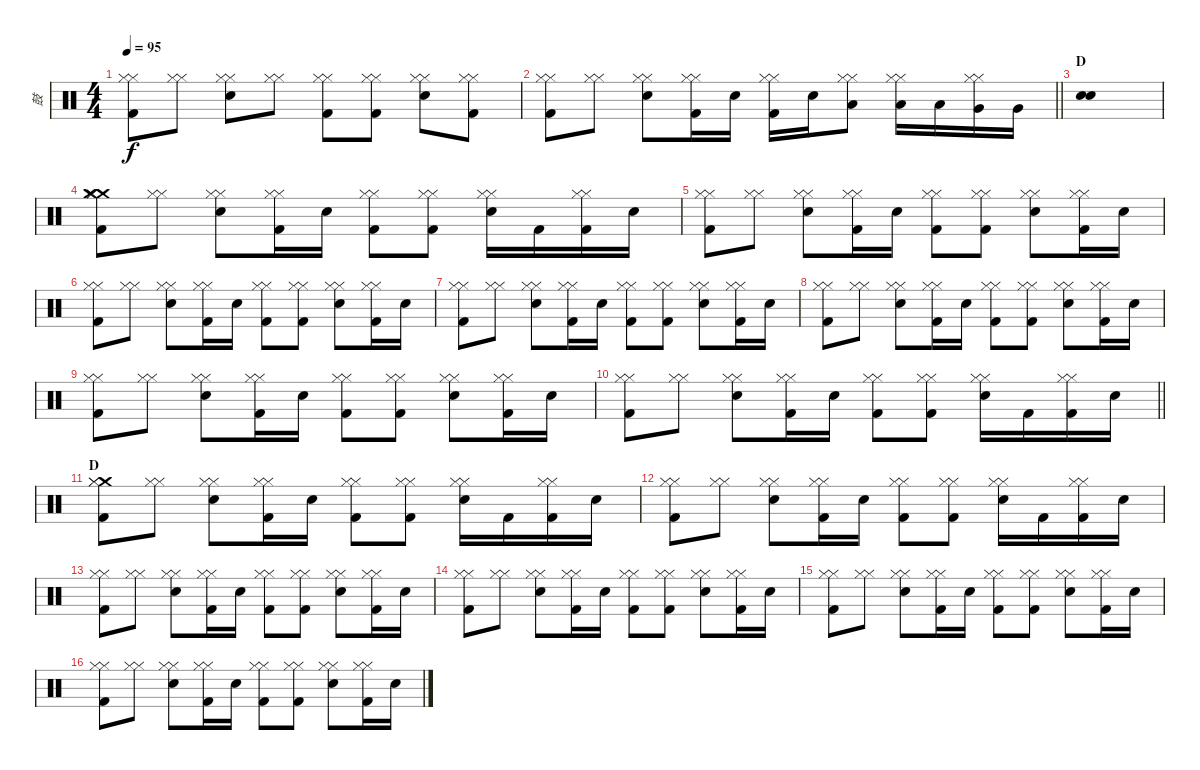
\track ("鼓" "鼓") {instrument percussion}
\staff {score}
\articulation defaults
\ts (4 4)
\tempo 95
\clef neutral
\ks c
("Hi-Hat (closed)" "Hi-Hat (closed)" "Kick (hit) 2").8{dy f} ("Hi-Hat (closed)" "Hi-Hat (closed)").8 ("Hi-Hat (closed)" "Hi-Hat (closed)" "Metronome (bell)").8 ("Hi-Hat (closed)" "Hi-Hat (closed)").8 ("Hi-Hat (closed)" "Hi-Hat (closed)" "Kick (hit) 2").8 ("Hi-Hat (closed)" "Hi-Hat (closed)" "Kick (hit) 2").8 ("Hi-Hat (closed)" "Hi-Hat (closed)" "Metronome (bell)").8 ("Hi-Hat (closed)" "Hi-Hat (closed)" "Kick (hit) 2").8 |
\barLineRight lightlight
("Hi-Hat (closed)" "Hi-Hat (closed)" "Kick (hit) 2").8 ("Hi-Hat (closed)" "Hi-Hat (closed)").8 ("Hi-Hat (closed)" "Hi-Hat (closed)" "Metronome (bell)").8 ("Hi-Hat (closed)" "Hi-Hat (closed)" "Kick (hit) 2").16 "Metronome (bell)".16 ("Hi-Hat (closed)" "Hi-Hat (closed)" "Kick (hit) 2").16 "Metronome (bell)".16 ("Hi-Hat (closed)" "Hi-Hat (closed)" "Low Tom (hit)").8 ("Hi-Hat (closed)" "Hi-Hat (closed)" "Low Floor Tom (hit)").16{volume 11} "Low Tom (hit)".16{volume 12} ("Hi-Hat (closed)" "Hi-Hat (closed)" "Very Low Tom (hit)").16{volume 13} "Very Low Tom (hit)".16{volume 14} |
\section ("" "D")
("Metronome (bell)" "Metronome (bell)").1{volume 14} |
("Crash medium (hit)" "Hi-Hat (closed)" "Hi-Hat (closed)" "Crash medium (hit)" "Kick (hit) 2").8{volume 13} ("Hi-Hat (closed)" "Hi-Hat (closed)").8 ("Hi-Hat (closed)" "Hi-Hat (closed)" "Metronome (bell)").8 ("Hi-Hat (closed)" "Hi-Hat (closed)" "Kick (hit) 2").16 "Metronome (bell)".16 ("Hi-Hat (closed)" "Hi-Hat (closed)" "Kick (hit) 2").8 ("Hi-Hat (closed)" "Hi-Hat (closed)" "Kick (hit) 2").8 ("Hi-Hat (closed)" "Hi-Hat (closed)" "Metronome (bell)").16 "Kick (hit) 2".16 ("Hi-Hat (closed)" "Hi-Hat (closed)" "Kick (hit) 2").16 "Metronome (bell)".16 |
("Hi-Hat (closed)" "Hi-Hat (closed)" "Kick (hit) 2").8 ("Hi-Hat (closed)" "Hi-Hat (closed)").8 ("Hi-Hat (closed)" "Hi-Hat (closed)" "Metronome (bell)").8 ("Hi-Hat (closed)" "Hi-Hat (closed)" "Kick (hit) 2").16 "Metronome (bell)".16 ("Hi-Hat (closed)" "Hi-Hat (closed)" "Kick (hit) 2").8 ("Hi-Hat (closed)" "Hi-Hat (closed)" "Kick (hit) 2").8 ("Hi-Hat (closed)" "Hi-Hat (closed)" "Metronome (bell)").8 ("Hi-Hat (closed)" "Hi-Hat (closed)" "Kick (hit) 2").16 "Metronome (bell)".16 |
("Hi-Hat (closed)" "Hi-Hat (closed)" "Kick (hit) 2").8 ("Hi-Hat (closed)" "Hi-Hat (closed)").8 ("Hi-Hat (closed)" "Hi-Hat (closed)" "Metronome (bell)").8 ("Hi-Hat (closed)" "Hi-Hat (closed)" "Kick (hit) 2").16 "Metronome (bell)".16 ("Hi-Hat (closed)" "Hi-Hat (closed)" "Kick (hit) 2").8 ("Hi-Hat (closed)" "Hi-Hat (closed)" "Kick (hit) 2").8 ("Hi-Hat (closed)" "Hi-Hat (closed)" "Metronome (bell)").8 ("Hi-Hat (closed)" "Hi-Hat (closed)" "Kick (hit) 2").16 "Metronome (bell)".16 |
("Hi-Hat (closed)" "Hi-Hat (closed)" "Kick (hit) 2").8 ("Hi-Hat (closed)" "Hi-Hat (closed)").8 ("Hi-Hat (closed)" "Hi-Hat (closed)" "Metronome (bell)").8 ("Hi-Hat (closed)" "Hi-Hat (closed)" "Kick (hit) 2").16 "Metronome (bell)".16 ("Hi-Hat (closed)" "Hi-Hat (closed)" "Kick (hit) 2").8 ("Hi-Hat (closed)" "Hi-Hat (closed)" "Kick (hit) 2").8 ("Hi-Hat (closed)" "Hi-Hat (closed)" "Metronome (bell)").8 ("Hi-Hat (closed)" "Hi-Hat (closed)" "Kick (hit) 2").16 "Metronome (bell)".16 |
("Hi-Hat (closed)" "Hi-Hat (closed)" "Kick (hit) 2").8 ("Hi-Hat (closed)" "Hi-Hat (closed)").8 ("Hi-Hat (closed)" "Hi-Hat (closed)" "Metronome (bell)").8 ("Hi-Hat (closed)" "Hi-Hat (closed)" "Kick (hit) 2").16 "Metronome (bell)".16 ("Hi-Hat (closed)" "Hi-Hat (closed)" "Kick (hit) 2").8 ("Hi-Hat (closed)" "Hi-Hat (closed)" "Kick (hit) 2").8 ("Hi-Hat (closed)" "Hi-Hat (closed)" "Metronome (bell)").8 ("Hi-Hat (closed)" "Hi-Hat (closed)" "Kick (hit) 2").16 "Metronome (bell)".16 |
("Hi-Hat (closed)" "Hi-Hat (closed)" "Kick (hit) 2").8 ("Hi-Hat (closed)" "Hi-Hat (closed)").8 ("Hi-Hat (closed)" "Hi-Hat (closed)" "Metronome (bell)").8 ("Hi-Hat (closed)" "Hi-Hat (closed)" "Kick (hit) 2").16 "Metronome (bell)".16 ("Hi-Hat (closed)" "Hi-Hat (closed)" "Kick (hit) 2").8 ("Hi-Hat (closed)" "Hi-Hat (closed)" "Kick (hit) 2").8 ("Hi-Hat (closed)" "Hi-Hat (closed)" "Metronome (bell)").8 ("Hi-Hat (closed)" "Hi-Hat (closed)" "Kick (hit) 2").16 "Metronome (bell)".16 |
\barLineRight lightlight
("Hi-Hat (closed)" "Hi-Hat (closed)" "Kick (hit) 2").8 ("Hi-Hat (closed)" "Hi-Hat (closed)").8 ("Hi-Hat (closed)" "Hi-Hat (closed)" "Metronome (bell)").8 ("Hi-Hat (closed)" "Hi-Hat (closed)" "Kick (hit) 2").16 "Metronome (bell)".16 ("Hi-Hat (closed)" "Hi-Hat (closed)" "Kick (hit) 2").8 ("Hi-Hat (closed)" "Hi-Hat (closed)" "Kick (hit) 2").8 ("Hi-Hat (closed)" "Hi-Hat (closed)" "Metronome (bell)").16 "Kick (hit) 2".16 ("Hi-Hat (closed)" "Hi-Hat (closed)" "Kick (hit) 2").16 "Metronome (bell)".16 |
\section ("" "D")
("Crash medium (hit)" "Hi-Hat (closed)" "Hi-Hat (closed)" "Kick (hit) 2").8 ("Hi-Hat (closed)" "Hi-Hat (closed)").8 ("Hi-Hat (closed)" "Hi-Hat (closed)" "Metronome (bell)").8 ("Hi-Hat (closed)" "Hi-Hat (closed)" "Kick (hit) 2").16 "Metronome (bell)".16 ("Hi-Hat (closed)" "Hi-Hat (closed)" "Kick (hit) 2").8 ("Hi-Hat (closed)" "Hi-Hat (closed)" "Kick (hit) 2").8 ("Hi-Hat (closed)" "Hi-Hat (closed)" "Metronome (bell)").16 "Kick (hit) 2".16 ("Hi-Hat (closed)" "Hi-Hat (closed)" "Kick (hit) 2").16 "Metronome (bell)".16 |
("Hi-Hat (closed)" "Hi-Hat (closed)" "Kick (hit) 2").8 ("Hi-Hat (closed)" "Hi-Hat (closed)").8 ("Hi-Hat (closed)" "Hi-Hat (closed)" "Metronome (bell)").8 ("Hi-Hat (closed)" "Hi-Hat (closed)" "Kick (hit) 2").16 "Metronome (bell)".16 ("Hi-Hat (closed)" "Hi-Hat (closed)" "Kick (hit) 2").8 ("Hi-Hat (closed)" "Hi-Hat (closed)" "Kick (hit) 2").8 ("Hi-Hat (closed)" "Hi-Hat (closed)" "Metronome (bell)").16 "Kick (hit) 2".16 ("Hi-Hat (closed)" "Hi-Hat (closed)" "Kick (hit) 2").16 "Metronome (bell)".16 |
("Hi-Hat (closed)" "Hi-Hat (closed)" "Kick (hit) 2").8 ("Hi-Hat (closed)" "Hi-Hat (closed)").8 ("Hi-Hat (closed)" "Hi-Hat (closed)" "Metronome (bell)").8 ("Hi-Hat (closed)" "Hi-Hat (closed)" "Kick (hit) 2").16 "Metronome (bell)".16 ("Hi-Hat (closed)" "Hi-Hat (closed)" "Kick (hit) 2").8 ("Hi-Hat (closed)" "Hi-Hat (closed)" "Kick (hit) 2").8 ("Hi-Hat (closed)" "Hi-Hat (closed)" "Metronome (bell)").8 ("Hi-Hat (closed)" "Hi-Hat (closed)" "Kick (hit) 2").16 "Metronome (bell)".16 |
("Hi-Hat (closed)" "Hi-Hat (closed)" "Kick (hit) 2").8 ("Hi-Hat (closed)" "Hi-Hat (closed)").8 ("Hi-Hat (closed)" "Hi-Hat (closed)" "Metronome (bell)").8 ("Hi-Hat (closed)" "Hi-Hat (closed)" "Kick (hit) 2").16 "Metronome (bell)".16 ("Hi-Hat (closed)" "Hi-Hat (closed)" "Kick (hit) 2").8 ("Hi-Hat (closed)" "Hi-Hat (closed)" "Kick (hit) 2").8 ("Hi-Hat (closed)" "Hi-Hat (closed)" "Metronome (bell)").8 ("Hi-Hat (closed)" "Hi-Hat (closed)" "Kick (hit) 2").16 "Metronome (bell)".16 |
("Hi-Hat (closed)" "Hi-Hat (closed)" "Kick (hit) 2").8 ("Hi-Hat (closed)" "Hi-Hat (closed)").8 ("Hi-Hat (closed)" "Hi-Hat (closed)" "Metronome (bell)").8 ("Hi-Hat (closed)" "Hi-Hat (closed)" "Kick (hit) 2").16 "Metronome (bell)".16 ("Hi-Hat (closed)" "Hi-Hat (closed)" "Kick (hit) 2").8 ("Hi-Hat (closed)" "Hi-Hat (closed)" "Kick (hit) 2").8 ("Hi-Hat (closed)" "Hi-Hat (closed)" "Metronome (bell)").8 ("Hi-Hat (closed)" "Hi-Hat (closed)" "Kick (hit) 2").16 "Metronome (bell)".16 |
("Hi-Hat (closed)" "Hi-Hat (closed)" "Kick (hit) 2").8 ("Hi-Hat (closed)" "Hi-Hat (closed)").8 ("Hi-Hat (closed)" "Hi-Hat (closed)" "Metronome (bell)").8 ("Hi-Hat (closed)" "Hi-Hat (closed)" "Kick (hit) 2").16 "Metronome (bell)".16 ("Hi-Hat (closed)" "Hi-Hat (closed)" "Kick (hit) 2").8 ("Hi-Hat (closed)" "Hi-Hat (closed)" "Kick (hit) 2").8 ("Hi-Hat (closed)" "Hi-Hat (closed)" "Metronome (bell)").8 ("Hi-Hat (closed)" "Hi-Hat (closed)" "Kick (hit) 2").16 "Metronome (bell)".16
